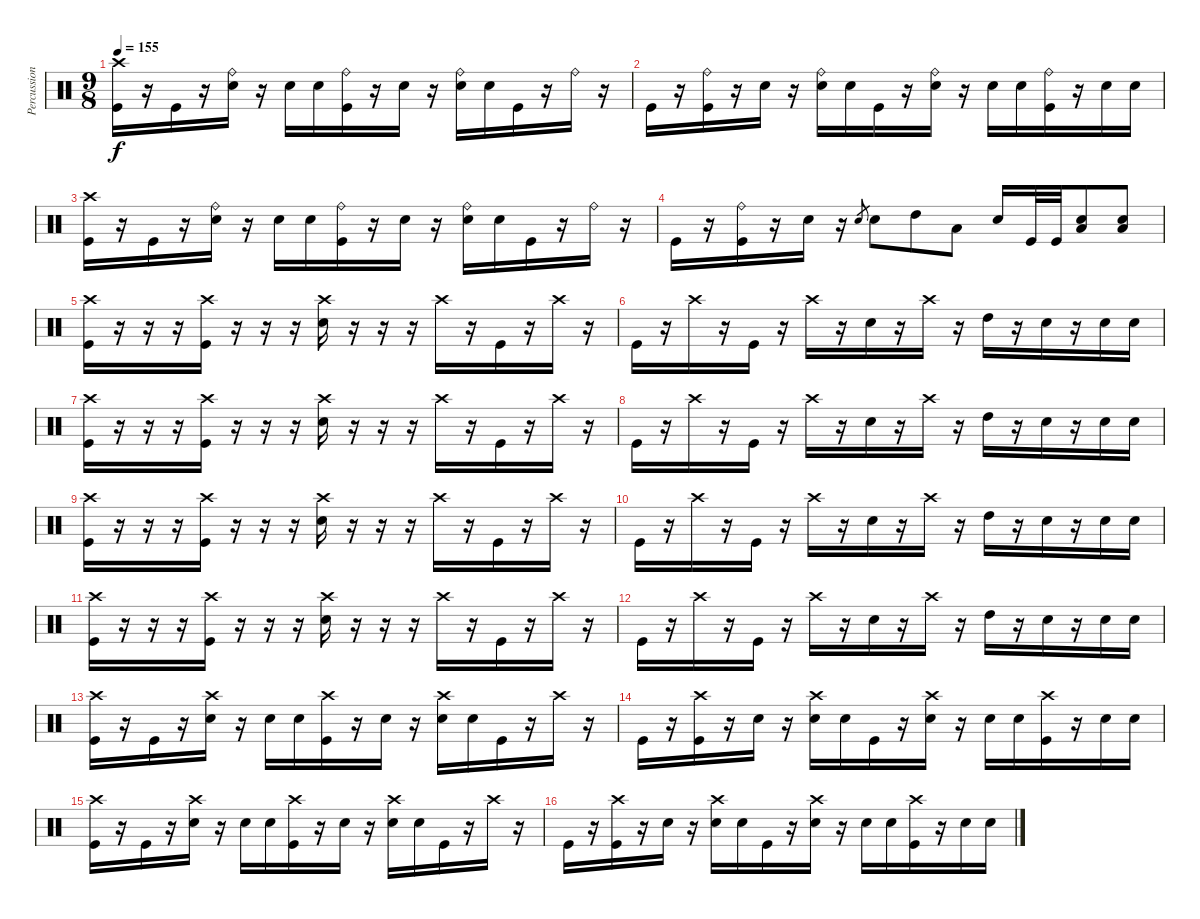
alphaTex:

\track ("Percussion" "Percussion") {instrument percussion}
\staff {score}
\articulation defaults
\ts (9 8)
\tempo 155
\clef neutral
\ks c
("Kick (hit)" "Crash high (hit)").16{dy f} r.16 "Kick (hit)".16 r.16 ("Ride (bell)" "Snare (hit) 2").16 r.16 "Snare (hit) 2".16 "Snare (hit) 2".16 ("Ride (bell)" "Kick (hit)").16 r.16 "Snare (hit) 2".16 r.16 ("Ride (bell)" "Snare (hit) 2").16 "Snare (hit) 2".16 "Kick (hit)".16 r.16 "Ride (bell)".16 r.16 |
"Kick (hit)".16 r.16 ("Kick (hit)" "Ride (bell)").16 r.16 "Snare (hit) 2".16 r.16 ("Snare (hit) 2" "Ride (bell)").16 "Snare (hit) 2".16 "Kick (hit)".16 r.16 ("Snare (hit) 2" "Ride (bell)").16 r.16 "Snare (hit) 2".16 "Snare (hit) 2".16 ("Kick (hit)" "Ride (bell)").16 r.16 "Snare (hit) 2".16 "Snare (hit) 2".16 |
("Kick (hit)" "Crash high (hit)").16 r.16 "Kick (hit)".16 r.16 ("Ride (bell)" "Snare (hit) 2").16 r.16 "Snare (hit) 2".16 "Snare (hit) 2".16 ("Ride (bell)" "Kick (hit)").16 r.16 "Snare (hit) 2".16 r.16 ("Ride (bell)" "Snare (hit) 2").16 "Snare (hit) 2".16 "Kick (hit)".16 r.16 "Ride (bell)".16 r.16 |
"Kick (hit)".16 r.16 ("Kick (hit)" "Ride (bell)").16 r.16 "Snare (hit) 2".16 r.16 "Snare (hit) 2".8{gr} "Snare (hit) 2".8 "High Tom (hit)".8 "Low Floor Tom (hit)".8 "Snare (hit) 2".16 "Kick (hit)".32 "Kick (hit)".32 ("Snare (hit) 2" "Low Floor Tom (hit)").8 ("Snare (hit) 2" "Low Floor Tom (hit)").8 |
("Kick (hit)" "Crash high (hit)").16 r.16 r.16 r.16 ("Kick (hit)" "Crash high (hit)").16 r.16 r.16 r.16 ("Crash high (hit)" "Snare (hit) 2").16 r.16 r.16 r.16 "Crash high (hit)".16 r.16 "Kick (hit)".16 r.16 "Crash high (hit)".16 r.16 |
"Kick (hit)".16 r.16 "Crash high (hit)".16 r.16 "Kick (hit)".16 r.16 "Crash high (hit)".16 r.16 "Snare (hit) 2".16 r.16 "Crash high (hit)".16 r.16 "High Tom (hit)".16 r.16 "Snare (hit) 2".16 r.16 "Snare (hit) 2".16 "Snare (hit) 2".16 |
("Kick (hit)" "Crash high (hit)").16 r.16 r.16 r.16 ("Kick (hit)" "Crash high (hit)").16 r.16 r.16 r.16 ("Crash high (hit)" "Snare (hit) 2").16 r.16 r.16 r.16 "Crash high (hit)".16 r.16 "Kick (hit)".16 r.16 "Crash high (hit)".16 r.16 |
"Kick (hit)".16 r.16 "Crash high (hit)".16 r.16 "Kick (hit)".16 r.16 "Crash high (hit)".16 r.16 "Snare (hit) 2".16 r.16 "Crash high (hit)".16 r.16 "High Tom (hit)".16 r.16 "Snare (hit) 2".16 r.16 "Snare (hit) 2".16 "Snare (hit) 2".16 |
("Kick (hit)" "Crash high (hit)").16 r.16 r.16 r.16 ("Kick (hit)" "Crash high (hit)").16 r.16 r.16 r.16 ("Crash high (hit)" "Snare (hit) 2").16 r.16 r.16 r.16 "Crash high (hit)".16 r.16 "Kick (hit)".16 r.16 "Crash high (hit)".16 r.16 |
"Kick (hit)".16 r.16 "Crash high (hit)".16 r.16 "Kick (hit)".16 r.16 "Crash high (hit)".16 r.16 "Snare (hit) 2".16 r.16 "Crash high (hit)".16 r.16 "High Tom (hit)".16 r.16 "Snare (hit) 2".16 r.16 "Snare (hit) 2".16 "Snare (hit) 2".16 |
("Kick (hit)" "Crash high (hit)").16 r.16 r.16 r.16 ("Kick (hit)" "Crash high (hit)").16 r.16 r.16 r.16 ("Crash high (hit)" "Snare (hit) 2").16 r.16 r.16 r.16 "Crash high (hit)".16 r.16 "Kick (hit)".16 r.16 "Crash high (hit)".16 r.16 |
"Kick (hit)".16 r.16 "Crash high (hit)".16 r.16 "Kick (hit)".16 r.16 "Crash high (hit)".16 r.16 "Snare (hit) 2".16 r.16 "Crash high (hit)".16 r.16 "High Tom (hit)".16 r.16 "Snare (hit) 2".16 r.16 "Snare (hit) 2".16 "Snare (hit) 2".16 |
("Kick (hit)" "Crash high (hit)").16 r.16 "Kick (hit)".16 r.16 ("Crash high (hit)" "Snare (hit) 2").16 r.16 "Snare (hit) 2".16 "Snare (hit) 2".16 ("Crash high (hit)" "Kick (hit)").16 r.16 "Snare (hit) 2".16 r.16 ("Crash high (hit)" "Snare (hit) 2").16 "Snare (hit) 2".16 "Kick (hit)".16 r.16 "Crash high (hit)".16 r.16 |
"Kick (hit)".16 r.16 ("Kick (hit)" "Crash high (hit)").16 r.16 "Snare (hit) 2".16 r.16 ("Snare (hit) 2" "Crash high (hit)").16 "Snare (hit) 2".16 "Kick (hit)".16 r.16 ("Snare (hit) 2" "Crash high (hit)").16 r.16 "Snare (hit) 2".16 "Snare (hit) 2".16 ("Kick (hit)" "Crash high (hit)").16 r.16 "Snare (hit) 2".16 "Snare (hit) 2".16 |
("Kick (hit)" "Crash high (hit)").16 r.16 "Kick (hit)".16 r.16 ("Crash high (hit)" "Snare (hit) 2").16 r.16 "Snare (hit) 2".16 "Snare (hit) 2".16 ("Crash high (hit)" "Kick (hit)").16 r.16 "Snare (hit) 2".16 r.16 ("Crash high (hit)" "Snare (hit) 2").16 "Snare (hit) 2".16 "Kick (hit)".16 r.16 "Crash high (hit)".16 r.16 |
"Kick (hit)".16 r.16 ("Kick (hit)" "Crash high (hit)").16 r.16 "Snare (hit) 2".16 r.16 ("Snare (hit) 2" "Crash high (hit)").16 "Snare (hit) 2".16 "Kick (hit)".16 r.16 ("Snare (hit) 2" "Crash high (hit)").16 r.16 "Snare (hit) 2".16 "Snare (hit) 2".16 ("Kick (hit)" "Crash high (hit)").16 r.16 "Snare (hit) 2".16 "Snare (hit) 2".16
